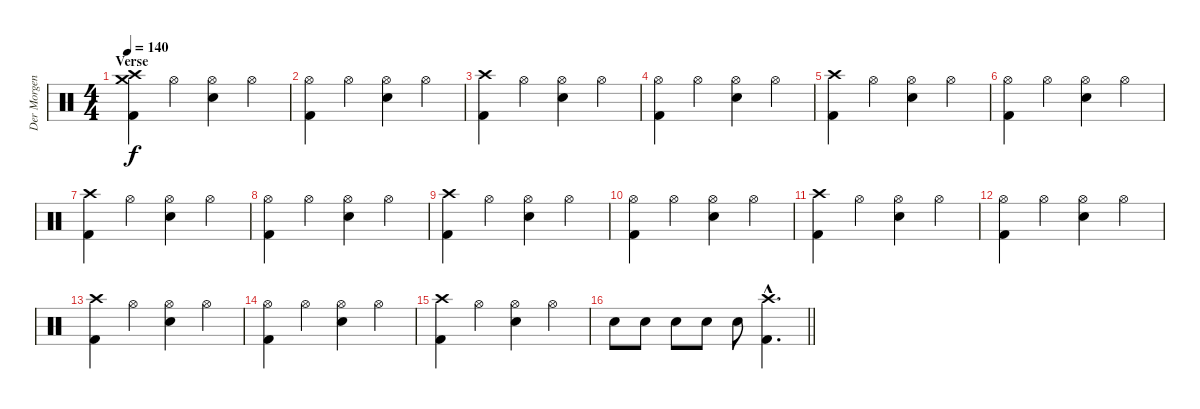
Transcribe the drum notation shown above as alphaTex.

\track ("Der Morgenstern" "Der Morgen") {instrument percussion}
\staff {score}
\articulation defaults
\ts (4 4)
\section ("" "Verse")
\tempo 140
\clef neutral
\ks c
("Crash medium (hit)" "Crash high (hit)" "Kick (hit) 2").4{dy f} "Hi-Hat (open)".4 ("Hi-Hat (open)" "Electric Snare (hit)").4 "Hi-Hat (open)".4 |
("Hi-Hat (open)" "Kick (hit) 2").4 "Hi-Hat (open)".4 ("Hi-Hat (open)" "Electric Snare (hit)").4 "Hi-Hat (open)".4 |
("Crash high (hit)" "Kick (hit) 2").4 "Hi-Hat (open)".4 ("Hi-Hat (open)" "Electric Snare (hit)").4 "Hi-Hat (open)".4 |
("Hi-Hat (open)" "Kick (hit) 2").4 "Hi-Hat (open)".4 ("Hi-Hat (open)" "Electric Snare (hit)").4 "Hi-Hat (open)".4 |
("Crash high (hit)" "Kick (hit) 2").4 "Hi-Hat (open)".4 ("Hi-Hat (open)" "Electric Snare (hit)").4 "Hi-Hat (open)".4 |
("Hi-Hat (open)" "Kick (hit) 2").4 "Hi-Hat (open)".4 ("Hi-Hat (open)" "Electric Snare (hit)").4 "Hi-Hat (open)".4 |
("Crash high (hit)" "Kick (hit) 2").4 "Hi-Hat (open)".4 ("Hi-Hat (open)" "Electric Snare (hit)").4 "Hi-Hat (open)".4 |
("Hi-Hat (open)" "Kick (hit) 2").4 "Hi-Hat (open)".4 ("Hi-Hat (open)" "Electric Snare (hit)").4 "Hi-Hat (open)".4 |
("Crash high (hit)" "Kick (hit) 2").4 "Hi-Hat (open)".4 ("Hi-Hat (open)" "Electric Snare (hit)").4 "Hi-Hat (open)".4 |
("Hi-Hat (open)" "Kick (hit) 2").4 "Hi-Hat (open)".4 ("Hi-Hat (open)" "Electric Snare (hit)").4 "Hi-Hat (open)".4 |
("Crash high (hit)" "Kick (hit) 2").4 "Hi-Hat (open)".4 ("Hi-Hat (open)" "Electric Snare (hit)").4 "Hi-Hat (open)".4 |
("Hi-Hat (open)" "Kick (hit) 2").4 "Hi-Hat (open)".4 ("Hi-Hat (open)" "Electric Snare (hit)").4 "Hi-Hat (open)".4 |
("Crash high (hit)" "Kick (hit) 2").4 "Hi-Hat (open)".4 ("Hi-Hat (open)" "Electric Snare (hit)").4 "Hi-Hat (open)".4 |
("Hi-Hat (open)" "Kick (hit) 2").4 "Hi-Hat (open)".4 ("Hi-Hat (open)" "Electric Snare (hit)").4 "Hi-Hat (open)".4 |
("Crash high (hit)" "Kick (hit) 2").4 "Hi-Hat (open)".4 ("Hi-Hat (open)" "Electric Snare (hit)").4 "Hi-Hat (open)".4 |
\barLineRight lightlight "Electric Snare (hit)".8 "Electric Snare (hit)".8 "Electric Snare (hit)".8 "Electric Snare (hit)".8 "Electric Snare (hit)".8
("Crash high (hit)"{hac} "Kick (hit) 2"{hac}).4{d}
